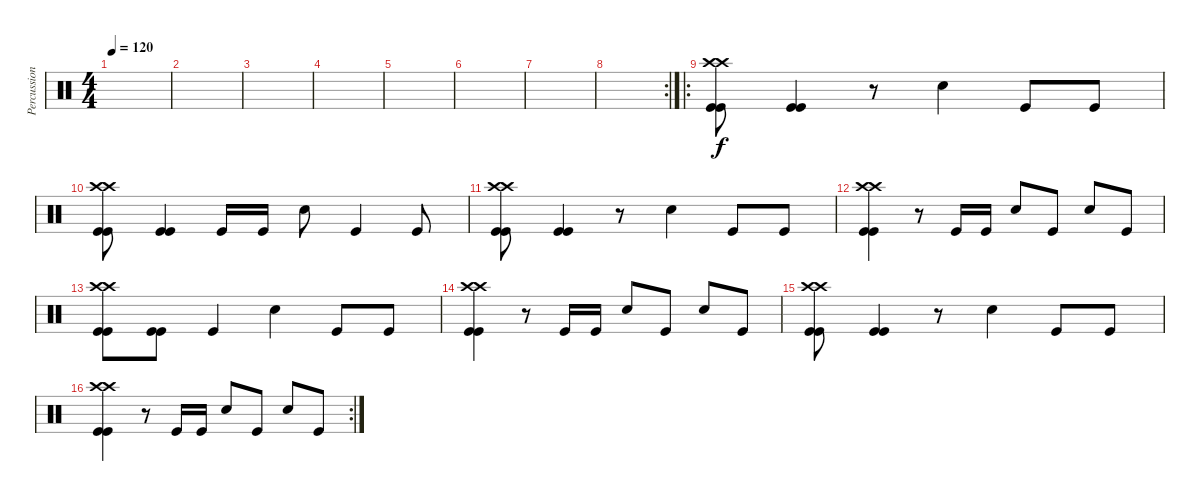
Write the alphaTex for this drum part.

\track ("Percussion" "Percussion") {instrument percussion}
\staff {score}
\articulation defaults
\ts (4 4)
\tempo 120
\clef neutral
\ks c
|
|
|
|
|
|
|
\rc 2
|
\ro
("Kick (hit)" "Kick (hit)" "Crash high (hit)" "Crash high (hit)").8 ("Kick (hit)" "Kick (hit)").4 r.8 "Electric Snare (hit)".4 "Kick (hit)".8 "Kick (hit)".8 |
("Kick (hit)" "Kick (hit)" "Crash high (hit)" "Crash high (hit)").8 ("Kick (hit)" "Kick (hit)").4 "Kick (hit)".16 "Kick (hit)".16 "Electric Snare (hit)".8 "Kick (hit)".4 "Kick (hit)".8 |
("Kick (hit)" "Kick (hit)" "Crash high (hit)" "Crash high (hit)").8 ("Kick (hit)" "Kick (hit)").4 r.8 "Electric Snare (hit)".4 "Kick (hit)".8 "Kick (hit)".8 |
("Kick (hit)" "Kick (hit)" "Crash high (hit)" "Crash high (hit)").4 r.8 "Kick (hit)".16 "Kick (hit)".16 "Electric Snare (hit)".8 "Kick (hit)".8 "Electric Snare (hit)".8 "Kick (hit)".8 |
("Kick (hit)" "Kick (hit)" "Crash high (hit)" "Crash high (hit)").8 ("Kick (hit)" "Kick (hit)").8 "Kick (hit)".4 "Electric Snare (hit)".4 "Kick (hit)".8 "Kick (hit)".8 |
("Kick (hit)" "Kick (hit)" "Crash high (hit)" "Crash high (hit)").4 r.8 "Kick (hit)".16 "Kick (hit)".16 "Electric Snare (hit)".8 "Kick (hit)".8 "Electric Snare (hit)".8 "Kick (hit)".8 |
("Kick (hit)" "Kick (hit)" "Crash high (hit)" "Crash high (hit)").8 ("Kick (hit)" "Kick (hit)").4 r.8 "Electric Snare (hit)".4 "Kick (hit)".8 "Kick (hit)".8 |
\rc 2
("Kick (hit)" "Kick (hit)" "Crash high (hit)" "Crash high (hit)").4 r.8 "Kick (hit)".16 "Kick (hit)".16 "Electric Snare (hit)".8 "Kick (hit)".8 "Electric Snare (hit)".8 "Kick (hit)".8
